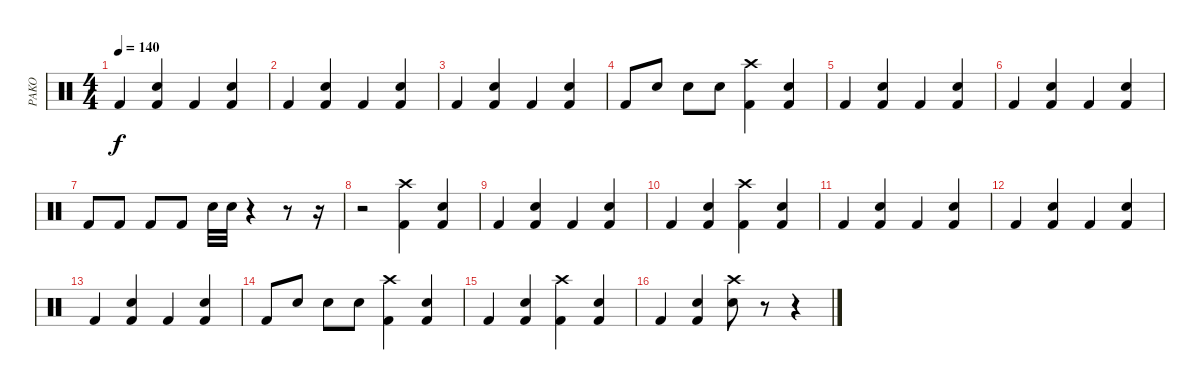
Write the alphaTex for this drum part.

\track ("PAKO" "PAKO") {instrument percussion}
\staff {score}
\articulation defaults
\ts (4 4)
\tempo 140
\clef neutral
\ks c "Kick (hit) 2".4{dy f}
("Electric Snare (hit)" "Kick (hit) 2").4 "Kick (hit) 2".4 ("Electric Snare (hit)" "Kick (hit) 2").4 |
"Kick (hit) 2".4 ("Electric Snare (hit)" "Kick (hit) 2").4 "Kick (hit) 2".4 ("Electric Snare (hit)" "Kick (hit) 2").4 |
"Kick (hit) 2".4 ("Electric Snare (hit)" "Kick (hit) 2").4 "Kick (hit) 2".4 ("Electric Snare (hit)" "Kick (hit) 2").4 |
"Kick (hit) 2".8 "Electric Snare (hit)".8 "Electric Snare (hit)".8 "Electric Snare (hit)".8 ("Crash high (hit)" "Kick (hit) 2").4 ("Electric Snare (hit)" "Kick (hit) 2").4 |
"Kick (hit) 2".4 ("Electric Snare (hit)" "Kick (hit) 2").4 "Kick (hit) 2".4 ("Electric Snare (hit)" "Kick (hit) 2").4 |
"Kick (hit) 2".4 ("Electric Snare (hit)" "Kick (hit) 2").4 "Kick (hit) 2".4 ("Electric Snare (hit)" "Kick (hit) 2").4 |
"Kick (hit) 2".8 "Kick (hit) 2".8 "Kick (hit) 2".8 "Kick (hit) 2".8 "Snare (hit) 2".32 "Electric Snare (hit)".32 r.4 r.8 r.16 |
r.2 ("Crash high (hit)" "Kick (hit) 2").4 ("Electric Snare (hit)" "Kick (hit) 2").4 |
"Kick (hit) 2".4 ("Electric Snare (hit)" "Kick (hit) 2").4 "Kick (hit) 2".4 ("Electric Snare (hit)" "Kick (hit) 2").4 |
"Kick (hit) 2".4 ("Electric Snare (hit)" "Kick (hit) 2").4 ("Crash high (hit)" "Kick (hit) 2").4 ("Electric Snare (hit)" "Kick (hit) 2").4 |
"Kick (hit) 2".4 ("Electric Snare (hit)" "Kick (hit) 2").4 "Kick (hit) 2".4 ("Electric Snare (hit)" "Kick (hit) 2").4 |
"Kick (hit) 2".4 ("Electric Snare (hit)" "Kick (hit) 2").4 "Kick (hit) 2".4 ("Electric Snare (hit)" "Kick (hit) 2").4 |
"Kick (hit) 2".4 ("Electric Snare (hit)" "Kick (hit) 2").4 "Kick (hit) 2".4 ("Electric Snare (hit)" "Kick (hit) 2").4 |
"Kick (hit) 2".8 "Electric Snare (hit)".8 "Electric Snare (hit)".8 "Electric Snare (hit)".8 ("Crash high (hit)" "Kick (hit) 2").4 ("Electric Snare (hit)" "Kick (hit) 2").4 |
"Kick (hit) 2".4 ("Electric Snare (hit)" "Kick (hit) 2").4 ("Crash high (hit)" "Kick (hit) 2").4 ("Electric Snare (hit)" "Kick (hit) 2").4 |
"Kick (hit) 2".4 ("Electric Snare (hit)" "Kick (hit) 2").4 ("Crash high (hit)" "Electric Snare (hit)").8 r.8 r.4
